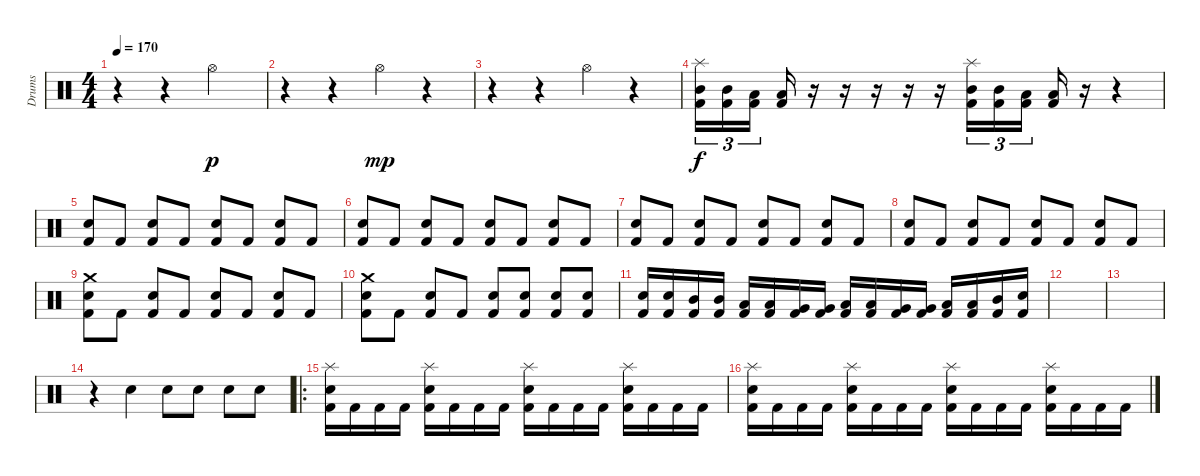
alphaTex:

\track ("Drums" "Drums") {instrument percussion}
\staff {score}
\articulation defaults
\ts (4 4)
\tempo 170
\clef neutral
\ks c
r.4{dy f} r.4 "Hi-Hat (open)".2{dy p} |
r.4 r.4 "Hi-Hat (open)".4{dy mp} r.4 |
r.4 r.4 "Hi-Hat (open)".4 r.4 |
("Splash (hit)" "Mid Tom (hit)" "Kick (hit) 2").16{tu (3 2) dy f} ("Mid Tom (hit)" "Kick (hit) 2").16{tu (3 2)} ("Low Tom (hit)" "Kick (hit) 2").16{tu (3 2) beam splitsecondary} ("Low Tom (hit)" "Kick (hit) 2").16 r.16 r.16 r.16 r.16 r.16 ("Splash (hit)" "Mid Tom (hit)" "Kick (hit) 2").16{tu (3 2)} ("Mid Tom (hit)" "Kick (hit) 2").16{tu (3 2)} ("Low Tom (hit)" "Kick (hit) 2").16{tu (3 2) beam splitsecondary} ("Low Tom (hit)" "Kick (hit) 2").16 r.16 r.4 |
("Snare (hit) 2" "Kick (hit) 2").8 "Kick (hit) 2".8 ("Snare (hit) 2" "Kick (hit) 2").8 "Kick (hit) 2".8 ("Snare (hit) 2" "Kick (hit) 2").8 "Kick (hit) 2".8 ("Snare (hit) 2" "Kick (hit) 2").8 "Kick (hit) 2".8 |
("Snare (hit) 2" "Kick (hit) 2").8 "Kick (hit) 2".8 ("Snare (hit) 2" "Kick (hit) 2").8 "Kick (hit) 2".8 ("Snare (hit) 2" "Kick (hit) 2").8 "Kick (hit) 2".8 ("Snare (hit) 2" "Kick (hit) 2").8 "Kick (hit) 2".8 |
("Snare (hit) 2" "Kick (hit) 2").8 "Kick (hit) 2".8 ("Snare (hit) 2" "Kick (hit) 2").8 "Kick (hit) 2".8 ("Snare (hit) 2" "Kick (hit) 2").8 "Kick (hit) 2".8 ("Snare (hit) 2" "Kick (hit) 2").8 "Kick (hit) 2".8 |
("Snare (hit) 2" "Kick (hit) 2").8 "Kick (hit) 2".8 ("Snare (hit) 2" "Kick (hit) 2").8 "Kick (hit) 2".8 ("Snare (hit) 2" "Kick (hit) 2").8 "Kick (hit) 2".8 ("Snare (hit) 2" "Kick (hit) 2").8 "Kick (hit) 2".8 |
("Crash medium (hit)" "Snare (hit) 2" "Kick (hit) 2").8 "Kick (hit) 2".8 ("Snare (hit) 2" "Kick (hit) 2").8 "Kick (hit) 2".8 ("Snare (hit) 2" "Kick (hit) 2").8 "Kick (hit) 2".8 ("Snare (hit) 2" "Kick (hit) 2").8 "Kick (hit) 2".8 |
("Crash medium (hit)" "Snare (hit) 2" "Kick (hit) 2").8 "Kick (hit) 2".8 ("Snare (hit) 2" "Kick (hit) 2").8 "Kick (hit) 2".8 ("Snare (hit) 2" "Kick (hit) 2").8 ("Snare (hit) 2" "Kick (hit) 2").8 ("Snare (hit) 2" "Kick (hit) 2").8 ("Snare (hit) 2" "Kick (hit) 2").8 |
("Snare (hit) 2" "Kick (hit) 2").16 ("Snare (hit) 2" "Kick (hit) 2").16 ("Mid Tom (hit)" "Kick (hit) 2").16 ("Mid Tom (hit)" "Kick (hit) 2").16 ("Low Tom (hit)" "Kick (hit) 2").16 ("Low Tom (hit)" "Kick (hit) 2").16 ("Very Low Tom (hit)" "Kick (hit) 2").16 ("Very Low Tom (hit)" "Kick (hit) 2").16 ("Low Floor Tom (hit)" "Kick (hit) 2").16 ("Low Floor Tom (hit)" "Kick (hit) 2").16 ("Very Low Tom (hit)" "Kick (hit) 2").16 ("Very Low Tom (hit)" "Kick (hit) 2").16 ("Low Tom (hit)" "Kick (hit) 2").16 ("Low Tom (hit)" "Kick (hit) 2").16 ("Mid Tom (hit)" "Kick (hit) 2").16 ("Snare (hit) 2" "Kick (hit) 2").16 |
|
|
r.4 "Snare (hit) 2".4 "Snare (hit) 2".8 "Snare (hit) 2".8 "Snare (hit) 2".8 "Snare (hit) 2".8 |
\ro
("Splash (hit)" "Snare (hit) 2" "Kick (hit) 2").16 "Kick (hit) 2".16 "Kick (hit) 2".16 "Kick (hit) 2".16 ("Splash (hit)" "Snare (hit) 2" "Kick (hit) 2").16 "Kick (hit) 2".16 "Kick (hit) 2".16 "Kick (hit) 2".16 ("Splash (hit)" "Snare (hit) 2" "Kick (hit) 2").16 "Kick (hit) 2".16 "Kick (hit) 2".16 "Kick (hit) 2".16 ("Splash (hit)" "Snare (hit) 2" "Kick (hit) 2").16 "Kick (hit) 2".16 "Kick (hit) 2".16 "Kick (hit) 2".16 |
("Splash (hit)" "Snare (hit) 2" "Kick (hit) 2").16 "Kick (hit) 2".16 "Kick (hit) 2".16 "Kick (hit) 2".16 ("Splash (hit)" "Snare (hit) 2" "Kick (hit) 2").16 "Kick (hit) 2".16 "Kick (hit) 2".16 "Kick (hit) 2".16 ("Splash (hit)" "Snare (hit) 2" "Kick (hit) 2").16 "Kick (hit) 2".16 "Kick (hit) 2".16 "Kick (hit) 2".16 ("Splash (hit)" "Snare (hit) 2" "Kick (hit) 2").16 "Kick (hit) 2".16 "Kick (hit) 2".16 "Kick (hit) 2".16
